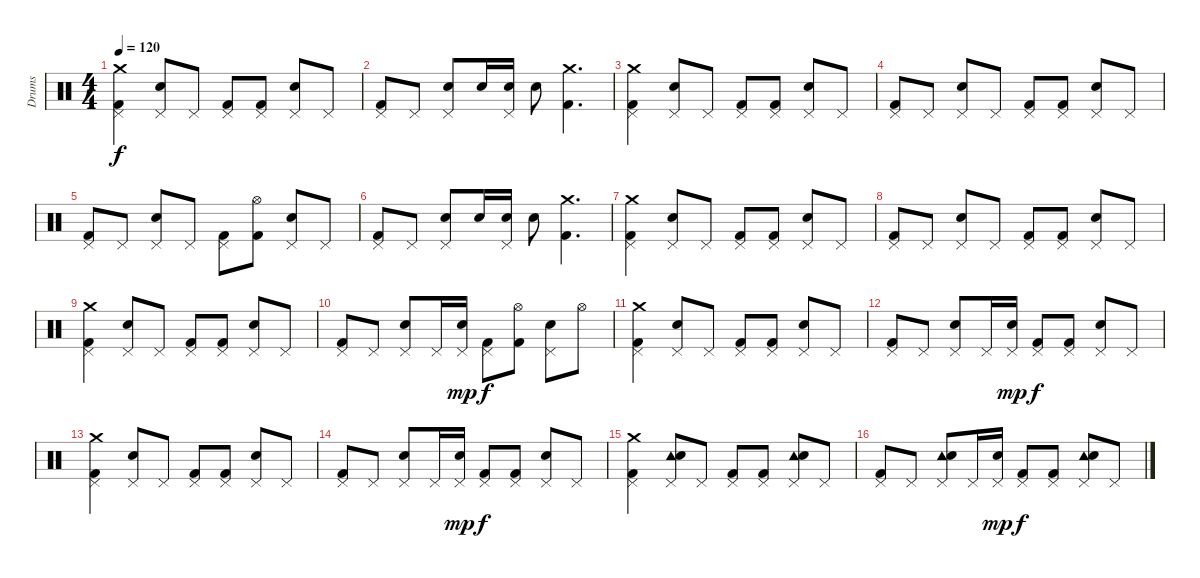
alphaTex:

\track ("Drums" "Drums") {instrument percussion}
\staff {score}
\articulation defaults
\ts (4 4)
\tempo 120
\clef neutral
\ks c
("Crash medium (hit)" "Pedal Hi-Hat (hit)" "Kick (hit) 2").4{dy f} ("Pedal Hi-Hat (hit)" "Electric Snare (hit)").8 "Pedal Hi-Hat (hit)".8 ("Pedal Hi-Hat (hit)" "Kick (hit) 2").8 ("Pedal Hi-Hat (hit)" "Kick (hit) 2").8 ("Pedal Hi-Hat (hit)" "Electric Snare (hit)").8 "Pedal Hi-Hat (hit)".8 |
("Pedal Hi-Hat (hit)" "Kick (hit) 2").8 "Pedal Hi-Hat (hit)".8 ("Pedal Hi-Hat (hit)" "Electric Snare (hit)").8 "Electric Snare (hit)".16 ("Pedal Hi-Hat (hit)" "Electric Snare (hit)").16 "Electric Snare (hit)".8 ("Crash medium (hit)" "Kick (hit) 2").4{d} |
("Crash medium (hit)" "Pedal Hi-Hat (hit)" "Kick (hit) 2").4 ("Pedal Hi-Hat (hit)" "Electric Snare (hit)").8 "Pedal Hi-Hat (hit)".8 ("Pedal Hi-Hat (hit)" "Kick (hit) 2").8 ("Pedal Hi-Hat (hit)" "Kick (hit) 2").8 ("Pedal Hi-Hat (hit)" "Electric Snare (hit)").8 "Pedal Hi-Hat (hit)".8 |
("Pedal Hi-Hat (hit)" "Kick (hit) 2").8 "Pedal Hi-Hat (hit)".8 ("Pedal Hi-Hat (hit)" "Electric Snare (hit)").8 "Pedal Hi-Hat (hit)".8 ("Pedal Hi-Hat (hit)" "Kick (hit) 2").8 ("Pedal Hi-Hat (hit)" "Kick (hit) 2").8 ("Pedal Hi-Hat (hit)" "Electric Snare (hit)").8 "Pedal Hi-Hat (hit)".8 |
("Pedal Hi-Hat (hit)" "Kick (hit) 2").8 "Pedal Hi-Hat (hit)".8 ("Pedal Hi-Hat (hit)" "Electric Snare (hit)").8 "Pedal Hi-Hat (hit)".8 ("Pedal Hi-Hat (hit)" "Kick (hit) 2").8 ("Hi-Hat (open)" "Kick (hit) 2").8 ("Pedal Hi-Hat (hit)" "Electric Snare (hit)").8 "Pedal Hi-Hat (hit)".8 |
("Pedal Hi-Hat (hit)" "Kick (hit) 2").8 "Pedal Hi-Hat (hit)".8 ("Pedal Hi-Hat (hit)" "Electric Snare (hit)").8 "Electric Snare (hit)".16 ("Pedal Hi-Hat (hit)" "Electric Snare (hit)").16 "Electric Snare (hit)".8 ("Crash medium (hit)" "Kick (hit) 2").4{d} |
("Crash medium (hit)" "Pedal Hi-Hat (hit)" "Kick (hit) 2").4 ("Pedal Hi-Hat (hit)" "Electric Snare (hit)").8 "Pedal Hi-Hat (hit)".8 ("Pedal Hi-Hat (hit)" "Kick (hit) 2").8 ("Pedal Hi-Hat (hit)" "Kick (hit) 2").8 ("Pedal Hi-Hat (hit)" "Electric Snare (hit)").8 "Pedal Hi-Hat (hit)".8 |
("Pedal Hi-Hat (hit)" "Kick (hit) 2").8 "Pedal Hi-Hat (hit)".8 ("Pedal Hi-Hat (hit)" "Electric Snare (hit)").8 "Pedal Hi-Hat (hit)".8 ("Pedal Hi-Hat (hit)" "Kick (hit) 2").8 ("Pedal Hi-Hat (hit)" "Kick (hit) 2").8 ("Pedal Hi-Hat (hit)" "Electric Snare (hit)").8 "Pedal Hi-Hat (hit)".8 |
("Crash medium (hit)" "Pedal Hi-Hat (hit)" "Kick (hit) 2").4 ("Pedal Hi-Hat (hit)" "Electric Snare (hit)").8 "Pedal Hi-Hat (hit)".8 ("Pedal Hi-Hat (hit)" "Kick (hit) 2").8 ("Pedal Hi-Hat (hit)" "Kick (hit) 2").8 ("Pedal Hi-Hat (hit)" "Electric Snare (hit)").8 "Pedal Hi-Hat (hit)".8 |
("Pedal Hi-Hat (hit)" "Kick (hit) 2").8 "Pedal Hi-Hat (hit)".8 ("Pedal Hi-Hat (hit)" "Electric Snare (hit)").8 "Pedal Hi-Hat (hit)".16 ("Pedal Hi-Hat (hit)" "Electric Snare (hit)").16{dy mp} ("Pedal Hi-Hat (hit)" "Kick (hit) 2").8{dy f} ("Hi-Hat (open)" "Kick (hit) 2").8 ("Pedal Hi-Hat (hit)" "Electric Snare (hit)").8 "Hi-Hat (open)".8 |
("Crash medium (hit)" "Pedal Hi-Hat (hit)" "Kick (hit) 2").4 ("Pedal Hi-Hat (hit)" "Electric Snare (hit)").8 "Pedal Hi-Hat (hit)".8 ("Pedal Hi-Hat (hit)" "Kick (hit) 2").8 ("Pedal Hi-Hat (hit)" "Kick (hit) 2").8 ("Pedal Hi-Hat (hit)" "Electric Snare (hit)").8 "Pedal Hi-Hat (hit)".8 |
("Pedal Hi-Hat (hit)" "Kick (hit) 2").8 "Pedal Hi-Hat (hit)".8 ("Pedal Hi-Hat (hit)" "Electric Snare (hit)").8 "Pedal Hi-Hat (hit)".16 ("Pedal Hi-Hat (hit)" "Electric Snare (hit)").16{dy mp} ("Pedal Hi-Hat (hit)" "Kick (hit) 2").8{dy f} ("Pedal Hi-Hat (hit)" "Kick (hit) 2").8 ("Pedal Hi-Hat (hit)" "Electric Snare (hit)").8 "Pedal Hi-Hat (hit)".8 |
("Crash medium (hit)" "Pedal Hi-Hat (hit)" "Kick (hit) 2").4 ("Pedal Hi-Hat (hit)" "Electric Snare (hit)").8 "Pedal Hi-Hat (hit)".8 ("Pedal Hi-Hat (hit)" "Kick (hit) 2").8 ("Pedal Hi-Hat (hit)" "Kick (hit) 2").8 ("Pedal Hi-Hat (hit)" "Electric Snare (hit)").8 "Pedal Hi-Hat (hit)".8 |
("Pedal Hi-Hat (hit)" "Kick (hit) 2").8 "Pedal Hi-Hat (hit)".8 ("Pedal Hi-Hat (hit)" "Electric Snare (hit)").8 "Pedal Hi-Hat (hit)".16 ("Pedal Hi-Hat (hit)" "Electric Snare (hit)").16{dy mp} ("Pedal Hi-Hat (hit)" "Kick (hit) 2").8{dy f} ("Pedal Hi-Hat (hit)" "Kick (hit) 2").8 ("Pedal Hi-Hat (hit)" "Electric Snare (hit)").8 "Pedal Hi-Hat (hit)".8 |
("Crash medium (hit)" "Pedal Hi-Hat (hit)" "Kick (hit) 2").4 ("Tambourine (hit)" "Pedal Hi-Hat (hit)" "Electric Snare (hit)").8 "Pedal Hi-Hat (hit)".8 ("Pedal Hi-Hat (hit)" "Kick (hit) 2").8 ("Pedal Hi-Hat (hit)" "Kick (hit) 2").8 ("Tambourine (hit)" "Pedal Hi-Hat (hit)" "Electric Snare (hit)").8 "Pedal Hi-Hat (hit)".8 |
("Pedal Hi-Hat (hit)" "Kick (hit) 2").8 "Pedal Hi-Hat (hit)".8 ("Tambourine (hit)" "Pedal Hi-Hat (hit)" "Electric Snare (hit)").8 "Pedal Hi-Hat (hit)".16 ("Pedal Hi-Hat (hit)" "Electric Snare (hit)").16{dy mp} ("Pedal Hi-Hat (hit)" "Kick (hit) 2").8{dy f} ("Pedal Hi-Hat (hit)" "Kick (hit) 2").8 ("Tambourine (hit)" "Pedal Hi-Hat (hit)" "Electric Snare (hit)").8 "Pedal Hi-Hat (hit)".8
